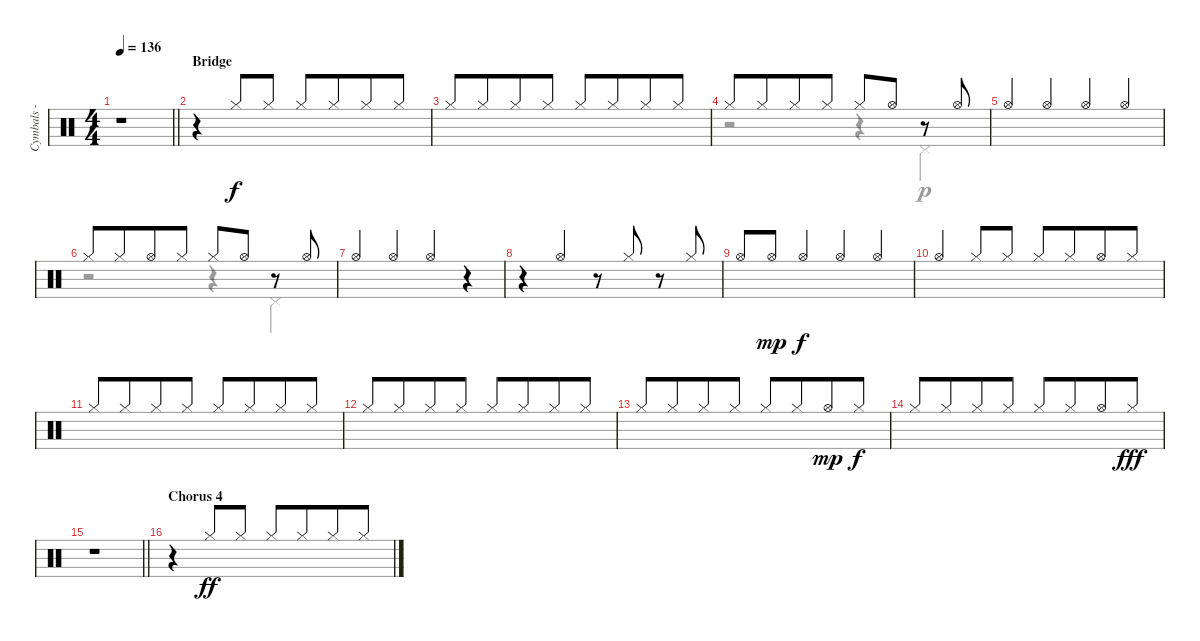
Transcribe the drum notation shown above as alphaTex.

\track ("Cymbals - hi-hat" "Cymbals - ") {instrument percussion}
\staff {score}
\articulation defaults
\voice
\ts (4 4)
\tempo 136
\clef neutral
\barLineRight lightlight
\ks c
r.1{dy fff} |
\section ("" "Bridge")
r.4{volume 2} "Hi-Hat (closed)".8{dy f beam Up} "Hi-Hat (closed)".8{beam Up} "Hi-Hat (closed)".8{beam Up} "Hi-Hat (closed)".8{beam Up beam merge} "Hi-Hat (closed)".8{beam Up} "Hi-Hat (closed)".8{beam Up} |
"Hi-Hat (closed)".8{beam Up} "Hi-Hat (closed)".8{beam Up beam merge} "Hi-Hat (closed)".8{beam Up} "Hi-Hat (closed)".8{beam Up} "Hi-Hat (closed)".8{beam Up} "Hi-Hat (closed)".8{beam Up beam merge} "Hi-Hat (closed)".8{beam Up} "Hi-Hat (closed)".8{beam Up} |
"Hi-Hat (closed)".8{beam Up} "Hi-Hat (closed)".8{beam Up beam merge} "Hi-Hat (closed)".8{beam Up} "Hi-Hat (closed)".8{beam Up} "Hi-Hat (closed)".8{beam Up} "Hi-Hat (open)".8{beam Up} r.8 "Hi-Hat (open)".8{beam Up} |
"Hi-Hat (open)".4{beam Up} "Hi-Hat (open)".4{beam Up} "Hi-Hat (open)".4{beam Up} "Hi-Hat (open)".4{beam Up} |
"Hi-Hat (closed)".8{beam Up} "Hi-Hat (closed)".8{beam Up beam merge} "Hi-Hat (open)".8{beam Up} "Hi-Hat (closed)".8{beam Up} "Hi-Hat (closed)".8{beam Up} "Hi-Hat (open)".8{beam Up} r.8 "Hi-Hat (open)".8{beam Up} |
"Hi-Hat (open)".4{beam Up} "Hi-Hat (open)".4{beam Up} "Hi-Hat (open)".4{beam Up} r.4 |
r.4 "Hi-Hat (open)".4{beam Up} r.8 "Hi-Hat (closed)".8{beam Up} r.8 "Hi-Hat (closed)".8{beam Up} |
"Hi-Hat (open)".8{beam Up} "Hi-Hat (open)".8{dy mp beam Up} "Hi-Hat (open)".4{dy f beam Up} "Hi-Hat (open)".4{beam Up} "Hi-Hat (open)".4{beam Up} |
"Hi-Hat (open)".4{beam Up} "Hi-Hat (closed)".8{beam Up} "Hi-Hat (closed)".8{beam Up} "Hi-Hat (closed)".8{beam Up} "Hi-Hat (closed)".8{beam Up beam merge} "Hi-Hat (open)".8{beam Up} "Hi-Hat (closed)".8{beam Up} |
"Hi-Hat (closed)".8{beam Up} "Hi-Hat (closed)".8{beam Up beam merge} "Hi-Hat (closed)".8{beam Up} "Hi-Hat (closed)".8{beam Up} "Hi-Hat (closed)".8{beam Up} "Hi-Hat (closed)".8{beam Up beam merge} "Hi-Hat (closed)".8{beam Up} "Hi-Hat (closed)".8{beam Up} |
"Hi-Hat (closed)".8{beam Up} "Hi-Hat (closed)".8{beam Up beam merge} "Hi-Hat (closed)".8{beam Up} "Hi-Hat (closed)".8{beam Up} "Hi-Hat (closed)".8{beam Up} "Hi-Hat (closed)".8{beam Up beam merge} "Hi-Hat (closed)".8{beam Up} "Hi-Hat (closed)".8{beam Up} |
"Hi-Hat (closed)".8{beam Up} "Hi-Hat (closed)".8{beam Up beam merge} "Hi-Hat (closed)".8{beam Up} "Hi-Hat (closed)".8{beam Up} "Hi-Hat (closed)".8{beam Up} "Hi-Hat (closed)".8{beam Up beam merge} "Hi-Hat (open)".8{dy mp beam Up} "Hi-Hat (closed)".8{dy f beam Up} |
"Hi-Hat (closed)".8{beam Up} "Hi-Hat (closed)".8{beam Up beam merge} "Hi-Hat (closed)".8{beam Up} "Hi-Hat (closed)".8{beam Up} "Hi-Hat (closed)".8{beam Up} "Hi-Hat (closed)".8{beam Up beam merge} "Hi-Hat (open)".8{beam Up} "Hi-Hat (closed)".8{dy fff beam Up} |
\barLineRight lightlight
r.1 |
\section ("" "Chorus 4")
r.4{volume 4} "Hi-Hat (closed)".8{dy ff beam Up} "Hi-Hat (closed)".8{beam Up} "Hi-Hat (closed)".8{beam Up} "Hi-Hat (closed)".8{beam Up beam merge} "Hi-Hat (closed)".8{beam Up} "Hi-Hat (closed)".8{beam Up}
\voice
\clef neutral
\ottava regular
\simile none
\barLineRight lightlight
\ks c
|
|
|
r.2 r.4 "Pedal Hi-Hat (hit)".4{dy p} |
|
r.2 r.4 "Pedal Hi-Hat (hit)".4 |
|
|
|
|
|
|
|
|
\barLineRight lightlight
|
